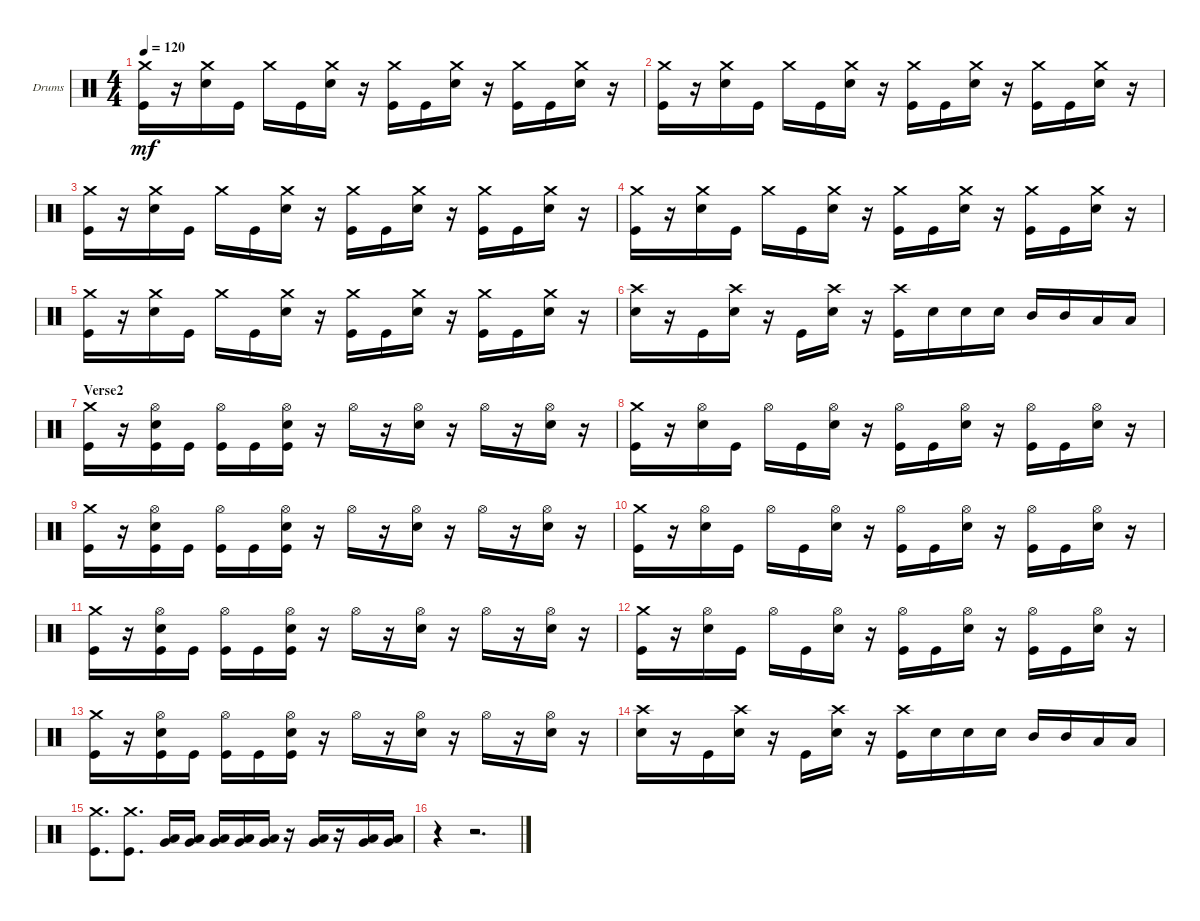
\bracketExtendMode groupsimilarinstruments
\firstSystemTrackNameOrientation horizontal
\otherSystemsTrackNameOrientation horizontal
\track ("Drumkit" "Drums") {instrument percussion}
\staff {score}
\articulation defaults
\ts (4 4)
\tempo 120
\clef neutral
\ks c
("Kick (hit)" "Crash medium (hit)").16{dy mf} r.16 ("Snare (hit) 2" "Crash medium (hit)").16 "Kick (hit)".16 "Crash medium (hit)".16 "Kick (hit)".16 ("Snare (hit) 2" "Crash medium (hit)").16 r.16 ("Kick (hit)" "Crash medium (hit)").16 "Kick (hit)".16 ("Snare (hit) 2" "Crash medium (hit)").16 r.16 ("Kick (hit)" "Crash medium (hit)").16 "Kick (hit)".16 ("Snare (hit) 2" "Crash medium (hit)").16 r.16 |
("Kick (hit)" "Crash medium (hit)").16 r.16 ("Snare (hit) 2" "Crash medium (hit)").16 "Kick (hit)".16 "Crash medium (hit)".16 "Kick (hit)".16 ("Snare (hit) 2" "Crash medium (hit)").16 r.16 ("Kick (hit)" "Crash medium (hit)").16 "Kick (hit)".16 ("Snare (hit) 2" "Crash medium (hit)").16 r.16 ("Kick (hit)" "Crash medium (hit)").16 "Kick (hit)".16 ("Snare (hit) 2" "Crash medium (hit)").16 r.16 |
("Kick (hit)" "Crash medium (hit)").16 r.16 ("Snare (hit) 2" "Crash medium (hit)").16 "Kick (hit)".16 "Crash medium (hit)".16 "Kick (hit)".16 ("Snare (hit) 2" "Crash medium (hit)").16 r.16 ("Kick (hit)" "Crash medium (hit)").16 "Kick (hit)".16 ("Snare (hit) 2" "Crash medium (hit)").16 r.16 ("Kick (hit)" "Crash medium (hit)").16 "Kick (hit)".16 ("Snare (hit) 2" "Crash medium (hit)").16 r.16 |
("Kick (hit)" "Crash medium (hit)").16 r.16 ("Snare (hit) 2" "Crash medium (hit)").16 "Kick (hit)".16 "Crash medium (hit)".16 "Kick (hit)".16 ("Snare (hit) 2" "Crash medium (hit)").16 r.16 ("Kick (hit)" "Crash medium (hit)").16 "Kick (hit)".16 ("Snare (hit) 2" "Crash medium (hit)").16 r.16 ("Kick (hit)" "Crash medium (hit)").16 "Kick (hit)".16 ("Snare (hit) 2" "Crash medium (hit)").16 r.16 |
("Kick (hit)" "Crash medium (hit)").16 r.16 ("Snare (hit) 2" "Crash medium (hit)").16 "Kick (hit)".16 "Crash medium (hit)".16 "Kick (hit)".16 ("Snare (hit) 2" "Crash medium (hit)").16 r.16 ("Kick (hit)" "Crash medium (hit)").16 "Kick (hit)".16 ("Snare (hit) 2" "Crash medium (hit)").16 r.16 ("Kick (hit)" "Crash medium (hit)").16 "Kick (hit)".16 ("Snare (hit) 2" "Crash medium (hit)").16 r.16 |
("Snare (hit) 2" "Crash high (hit)").16 r.16 "Kick (hit)".16 ("Snare (hit) 2" "Crash high (hit)").16 r.16 "Kick (hit)".16 ("Snare (hit) 2" "Crash high (hit)").16 r.16 ("Kick (hit)" "Crash high (hit)").16 "Snare (hit) 2".16 "Snare (hit) 2".16 "Snare (hit) 2".16 "Mid Tom (hit)".16 "Mid Tom (hit)".16 "Low Tom (hit)".16 "Low Tom (hit)".16 |
\section ("" "Verse2")
("Crash medium (hit)" "Kick (hit)").16 r.16 ("Hi-Hat (open)" "Snare (hit) 2" "Kick (hit)").16 "Kick (hit)".16 ("Hi-Hat (open)" "Kick (hit)").16 "Kick (hit)".16 ("Hi-Hat (open)" "Snare (hit) 2" "Kick (hit)").16 r.16 "Hi-Hat (open)".16 r.16 ("Hi-Hat (open)" "Snare (hit) 2").16 r.16 "Hi-Hat (open)".16 r.16 ("Hi-Hat (open)" "Snare (hit) 2").16 r.16 |
("Crash medium (hit)" "Kick (hit)").16 r.16 ("Hi-Hat (open)" "Snare (hit) 2").16 "Kick (hit)".16 "Hi-Hat (open)".16 "Kick (hit)".16 ("Hi-Hat (open)" "Snare (hit) 2").16 r.16 ("Hi-Hat (open)" "Kick (hit)").16 "Kick (hit)".16 ("Hi-Hat (open)" "Snare (hit) 2").16 r.16 ("Hi-Hat (open)" "Kick (hit)").16 "Kick (hit)".16 ("Hi-Hat (open)" "Snare (hit) 2").16 r.16 |
("Crash medium (hit)" "Kick (hit)").16 r.16 ("Hi-Hat (open)" "Snare (hit) 2" "Kick (hit)").16 "Kick (hit)".16 ("Hi-Hat (open)" "Kick (hit)").16 "Kick (hit)".16 ("Hi-Hat (open)" "Snare (hit) 2" "Kick (hit)").16 r.16 "Hi-Hat (open)".16 r.16 ("Hi-Hat (open)" "Snare (hit) 2").16 r.16 "Hi-Hat (open)".16 r.16 ("Hi-Hat (open)" "Snare (hit) 2").16 r.16 |
("Crash medium (hit)" "Kick (hit)").16 r.16 ("Hi-Hat (open)" "Snare (hit) 2").16 "Kick (hit)".16 "Hi-Hat (open)".16 "Kick (hit)".16 ("Hi-Hat (open)" "Snare (hit) 2").16 r.16 ("Hi-Hat (open)" "Kick (hit)").16 "Kick (hit)".16 ("Hi-Hat (open)" "Snare (hit) 2").16 r.16 ("Hi-Hat (open)" "Kick (hit)").16 "Kick (hit)".16 ("Hi-Hat (open)" "Snare (hit) 2").16 r.16 |
("Crash medium (hit)" "Kick (hit)").16 r.16 ("Hi-Hat (open)" "Snare (hit) 2" "Kick (hit)").16 "Kick (hit)".16 ("Hi-Hat (open)" "Kick (hit)").16 "Kick (hit)".16 ("Hi-Hat (open)" "Snare (hit) 2" "Kick (hit)").16 r.16 "Hi-Hat (open)".16 r.16 ("Hi-Hat (open)" "Snare (hit) 2").16 r.16 "Hi-Hat (open)".16 r.16 ("Hi-Hat (open)" "Snare (hit) 2").16 r.16 |
("Crash medium (hit)" "Kick (hit)").16 r.16 ("Hi-Hat (open)" "Snare (hit) 2").16 "Kick (hit)".16 "Hi-Hat (open)".16 "Kick (hit)".16 ("Hi-Hat (open)" "Snare (hit) 2").16 r.16 ("Hi-Hat (open)" "Kick (hit)").16 "Kick (hit)".16 ("Hi-Hat (open)" "Snare (hit) 2").16 r.16 ("Hi-Hat (open)" "Kick (hit)").16 "Kick (hit)".16 ("Hi-Hat (open)" "Snare (hit) 2").16 r.16 |
("Crash medium (hit)" "Kick (hit)").16 r.16 ("Hi-Hat (open)" "Snare (hit) 2" "Kick (hit)").16 "Kick (hit)".16 ("Hi-Hat (open)" "Kick (hit)").16 "Kick (hit)".16 ("Hi-Hat (open)" "Snare (hit) 2" "Kick (hit)").16 r.16 "Hi-Hat (open)".16 r.16 ("Hi-Hat (open)" "Snare (hit) 2").16 r.16 "Hi-Hat (open)".16 r.16 ("Hi-Hat (open)" "Snare (hit) 2").16 r.16 |
("Snare (hit) 2" "Crash high (hit)").16 r.16 "Kick (hit)".16 ("Snare (hit) 2" "Crash high (hit)").16 r.16 "Kick (hit)".16 ("Snare (hit) 2" "Crash high (hit)").16 r.16 ("Kick (hit)" "Crash high (hit)").16 "Snare (hit) 2".16 "Snare (hit) 2".16 "Snare (hit) 2".16 "Mid Tom (hit)".16 "Mid Tom (hit)".16 "Low Tom (hit)".16 "Low Tom (hit)".16 |
("Crash medium (hit)" "Kick (hit)").8{d} ("Crash medium (hit)" "Kick (hit)").8{d} ("Low Tom (hit)" "Very Low Tom (hit)").16 ("Low Tom (hit)" "Very Low Tom (hit)").16 ("Low Tom (hit)" "Very Low Tom (hit)").16 ("Low Tom (hit)" "Very Low Tom (hit)").16 ("Low Tom (hit)" "Very Low Tom (hit)").16 r.16 ("Low Tom (hit)" "Very Low Tom (hit)").16 r.16 ("Low Tom (hit)" "Very Low Tom (hit)").16 ("Low Tom (hit)" "Very Low Tom (hit)").16 |
r.4 r.2{d}
